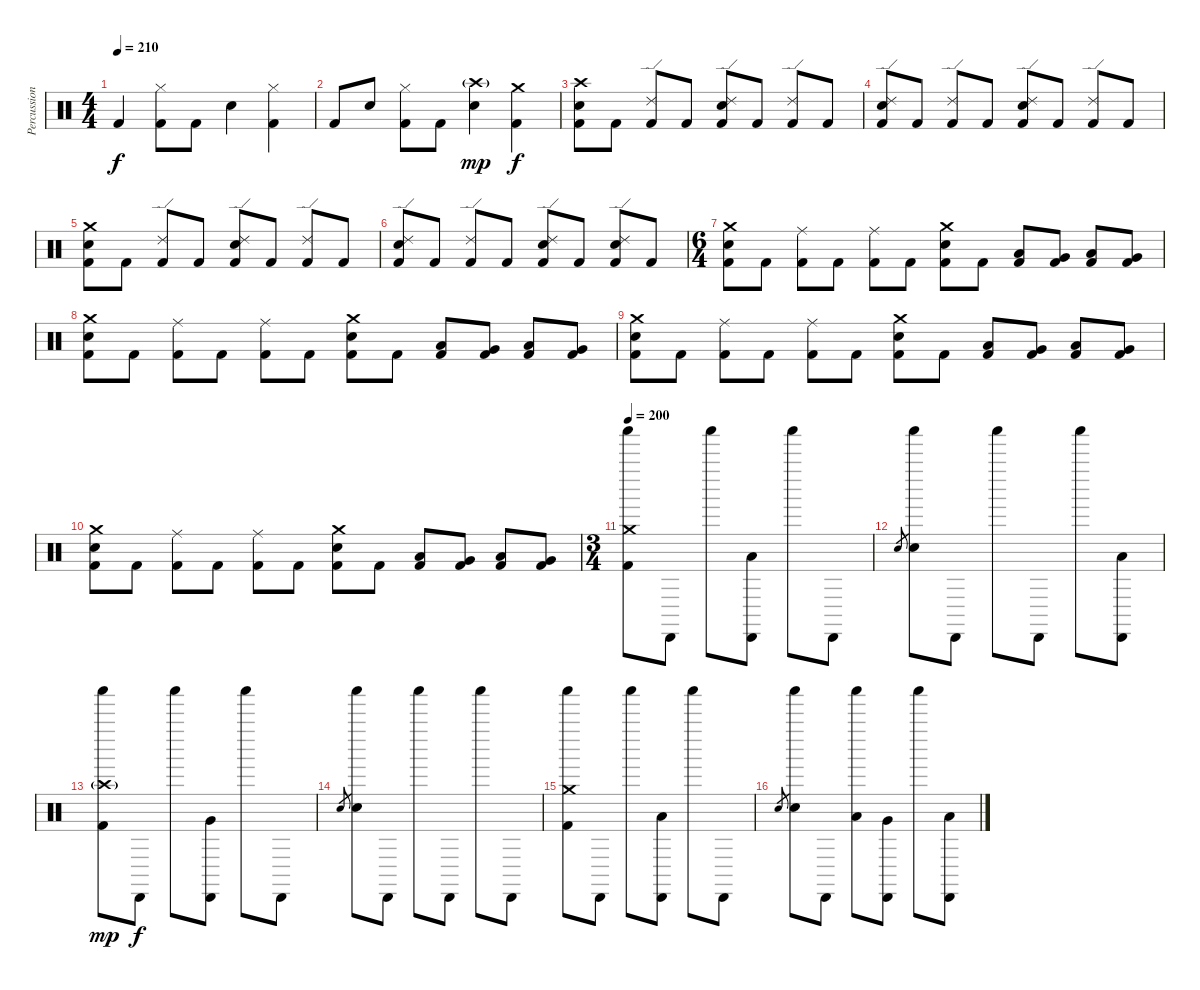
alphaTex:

\track ("Percussion" "Percussion") {instrument percussion}
\staff {score}
\articulation defaults
\ts (4 4)
\tempo 210
\clef neutral
\ks c "Kick (hit) 2".4{dy f}
("Hi-Hat (closed)" "Kick (hit) 2").8 "Kick (hit) 2".8 "Electric Snare (hit)".4 ("Hi-Hat (closed)" "Kick (hit) 2").4 |
"Kick (hit) 2".8 "Electric Snare (hit)".8 ("Hi-Hat (closed)" "Kick (hit) 2").8 "Kick (hit) 2".8 ("Crash high (hit)"{g} "Electric Snare (hit)").4{dy mp} ("Crash medium (hit)" "Kick (hit) 2").4{dy f} |
("Crash high (hit)" "Electric Snare (hit)" "Kick (hit) 2").8 "Kick (hit) 2".8 ("Ride (edge) 2" "Kick (hit) 2").8 "Kick (hit) 2".8 ("Ride (edge) 2" "Electric Snare (hit)" "Kick (hit) 2").8 "Kick (hit) 2".8 ("Ride (edge) 2" "Kick (hit) 2").8 "Kick (hit) 2".8 |
("Ride (edge) 2" "Electric Snare (hit)" "Kick (hit) 2").8 "Kick (hit) 2".8 ("Ride (edge) 2" "Kick (hit) 2").8 "Kick (hit) 2".8 ("Ride (edge) 2" "Electric Snare (hit)" "Kick (hit) 2").8 "Kick (hit) 2".8 ("Ride (edge) 2" "Kick (hit) 2").8 "Kick (hit) 2".8 |
("Crash medium (hit)" "Electric Snare (hit)" "Kick (hit) 2").8 "Kick (hit) 2".8 ("Ride (edge) 2" "Kick (hit) 2").8 "Kick (hit) 2".8 ("Ride (edge) 2" "Electric Snare (hit)" "Kick (hit) 2").8 "Kick (hit) 2".8 ("Ride (edge) 2" "Kick (hit) 2").8 "Kick (hit) 2".8 |
("Ride (edge) 2" "Electric Snare (hit)" "Kick (hit) 2").8 "Kick (hit) 2".8 ("Ride (edge) 2" "Kick (hit) 2").8 "Kick (hit) 2".8 ("Ride (edge) 2" "Electric Snare (hit)" "Kick (hit) 2").8 "Kick (hit) 2".8 ("Ride (edge) 2" "Electric Snare (hit)" "Kick (hit) 2").8 "Kick (hit) 2".8 |
\ts (6 4)
("Crash medium (hit)" "Electric Snare (hit)" "Kick (hit) 2").8 "Kick (hit) 2".8 ("Ride (middle)" "Kick (hit) 2").8 "Kick (hit) 2".8 ("Ride (middle)" "Kick (hit) 2").8 "Kick (hit) 2".8 ("Crash medium (hit)" "Electric Snare (hit)" "Kick (hit) 2").8 "Kick (hit) 2".8 ("Low Tom (hit)" "Kick (hit) 2").8 ("Very Low Tom (hit)" "Kick (hit) 2").8 ("Low Tom (hit)" "Kick (hit) 2").8 ("Very Low Tom (hit)" "Kick (hit) 2").8 |
("Crash medium (hit)" "Electric Snare (hit)" "Kick (hit) 2").8 "Kick (hit) 2".8 ("Ride (middle)" "Kick (hit) 2").8 "Kick (hit) 2".8 ("Ride (middle)" "Kick (hit) 2").8 "Kick (hit) 2".8 ("Crash medium (hit)" "Electric Snare (hit)" "Kick (hit) 2").8 "Kick (hit) 2".8 ("Low Tom (hit)" "Kick (hit) 2").8 ("Very Low Tom (hit)" "Kick (hit) 2").8 ("Low Tom (hit)" "Kick (hit) 2").8 ("Very Low Tom (hit)" "Kick (hit) 2").8 |
("Crash medium (hit)" "Electric Snare (hit)" "Kick (hit) 2").8 "Kick (hit) 2".8 ("Ride (middle)" "Kick (hit) 2").8 "Kick (hit) 2".8 ("Ride (middle)" "Kick (hit) 2").8 "Kick (hit) 2".8 ("Crash medium (hit)" "Electric Snare (hit)" "Kick (hit) 2").8 "Kick (hit) 2".8 ("Low Tom (hit)" "Kick (hit) 2").8 ("Very Low Tom (hit)" "Kick (hit) 2").8 ("Low Tom (hit)" "Kick (hit) 2").8 ("Very Low Tom (hit)" "Kick (hit) 2").8 |
("Crash medium (hit)" "Electric Snare (hit)" "Kick (hit) 2").8 "Kick (hit) 2".8 ("Ride (middle)" "Kick (hit) 2").8 "Kick (hit) 2".8 ("Ride (middle)" "Kick (hit) 2").8 "Kick (hit) 2".8 ("Crash medium (hit)" "Electric Snare (hit)" "Kick (hit) 2").8 "Kick (hit) 2".8 ("Low Tom (hit)" "Kick (hit) 2").8 ("Very Low Tom (hit)" "Kick (hit) 2").8 ("Low Tom (hit)" "Kick (hit) 2").8 ("Very Low Tom (hit)" "Kick (hit) 2").8 |
\ts (3 4)
\tempo 200
("Shaker (hit)" "Crash medium (hit)" "Kick (hit) 2").8 "Cabasa (hit)".8 "Shaker (hit)".8 ("Cabasa (hit)" "Low Tom (hit)").8 "Shaker (hit)".8 "Cabasa (hit)".8 |
"Electric Snare (hit)".8{gr} ("Shaker (hit)" "Electric Snare (hit)").8 "Cabasa (hit)".8 "Shaker (hit)".8 "Cabasa (hit)".8 "Shaker (hit)".8 ("Cabasa (hit)" "Low Tom (hit)").8 |
("Shaker (hit)" "Crash high (hit)"{g} "Kick (hit) 2").8{dy mp} "Cabasa (hit)".8{dy f} "Shaker (hit)".8 ("Cabasa (hit)" "Very Low Tom (hit)").8 "Shaker (hit)".8 "Cabasa (hit)".8 |
"Electric Snare (hit)".8{gr} ("Shaker (hit)" "Electric Snare (hit)").8 "Cabasa (hit)".8 "Shaker (hit)".8 "Cabasa (hit)".8 "Shaker (hit)".8 "Cabasa (hit)".8 |
("Shaker (hit)" "Crash medium (hit)" "Kick (hit) 2").8 "Cabasa (hit)".8 "Shaker (hit)".8 ("Cabasa (hit)" "Low Tom (hit)").8 "Shaker (hit)".8 "Cabasa (hit)".8 |
"Electric Snare (hit)".8{gr} ("Shaker (hit)" "Electric Snare (hit)").8 "Cabasa (hit)".8 ("Shaker (hit)" "Low Tom (hit)").8 ("Cabasa (hit)" "Very Low Tom (hit)").8 "Shaker (hit)".8 ("Cabasa (hit)" "Low Tom (hit)").8
